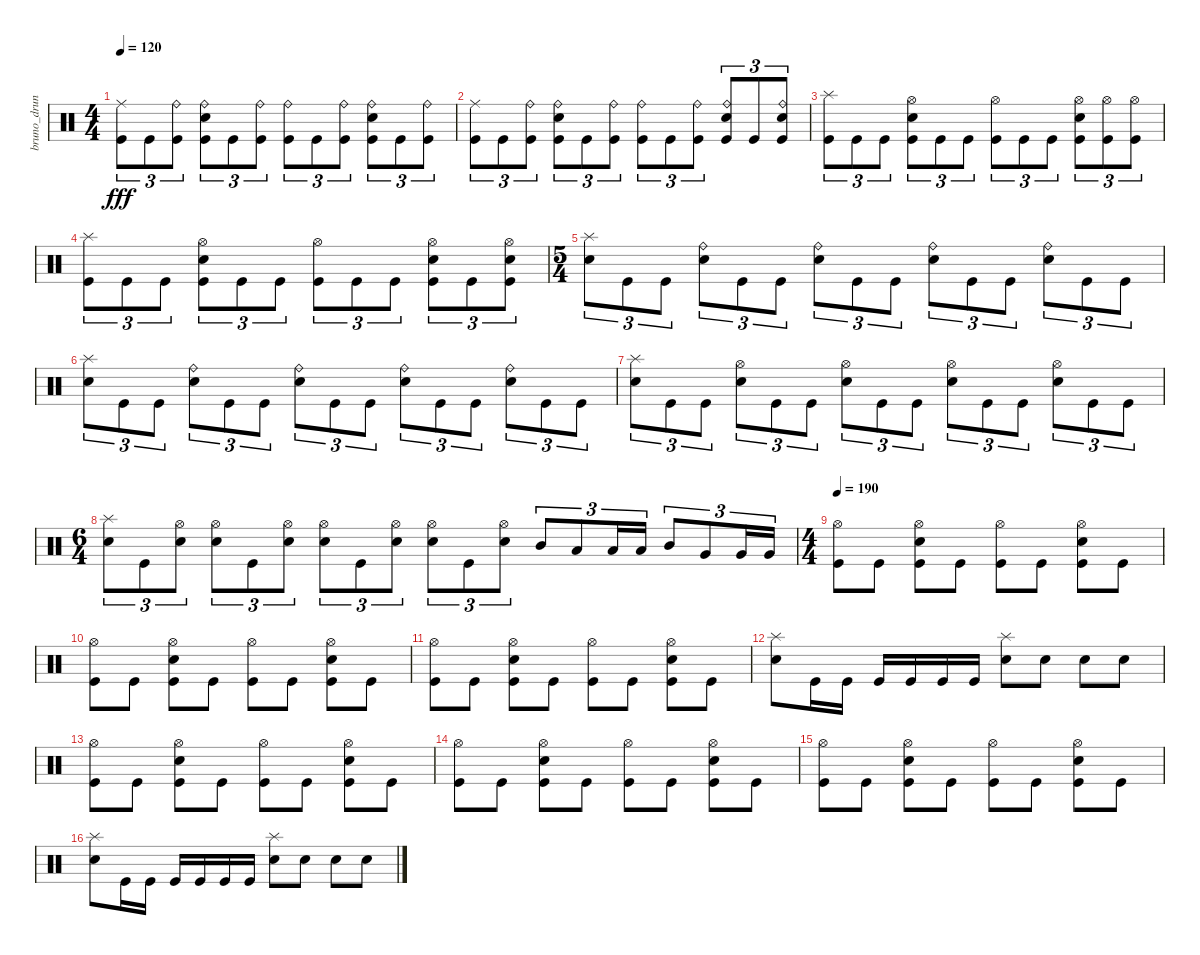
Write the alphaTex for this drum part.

\track ("bruno_druns" "bruno_drun") {instrument percussion}
\staff {score}
\articulation defaults
\ts (4 4)
\tempo 120
\clef neutral
\ks c
("Kick (hit)" "Ride (middle)").8{tu (3 2) dy fff} "Kick (hit)".8{tu (3 2)} ("Kick (hit)" "Ride (bell)").8{tu (3 2)} ("Kick (hit)" "Electric Snare (hit)" "Ride (bell)").8{tu (3 2)} "Kick (hit)".8{tu (3 2)} ("Kick (hit)" "Ride (bell)").8{tu (3 2)} ("Kick (hit)" "Ride (bell)").8{tu (3 2)} "Kick (hit)".8{tu (3 2)} ("Kick (hit)" "Ride (bell)").8{tu (3 2)} ("Kick (hit)" "Electric Snare (hit)" "Ride (bell)").8{tu (3 2)} "Kick (hit)".8{tu (3 2)} ("Kick (hit)" "Ride (bell)").8{tu (3 2)} |
("Kick (hit)" "Ride (middle)").8{tu (3 2)} "Kick (hit)".8{tu (3 2)} ("Kick (hit)" "Ride (bell)").8{tu (3 2)} ("Kick (hit)" "Electric Snare (hit)" "Ride (bell)").8{tu (3 2)} "Kick (hit)".8{tu (3 2)} ("Kick (hit)" "Ride (bell)").8{tu (3 2)} ("Kick (hit)" "Ride (bell)").8{tu (3 2)} "Kick (hit)".8{tu (3 2)} ("Kick (hit)" "Ride (bell)").8{tu (3 2)} ("Kick (hit)" "Electric Snare (hit)" "Ride (bell)").8{tu (3 2)} "Kick (hit)".8{tu (3 2)} ("Kick (hit)" "Electric Snare (hit)" "Ride (bell)").8{tu (3 2)} |
("Kick (hit)" "Splash (hit)").8{tu (3 2)} "Kick (hit)".8{tu (3 2)} "Kick (hit)".8{tu (3 2)} ("Kick (hit)" "Electric Snare (hit)" "Hi-Hat (open)").8{tu (3 2)} "Kick (hit)".8{tu (3 2)} "Kick (hit)".8{tu (3 2)} ("Kick (hit)" "Hi-Hat (open)").8{tu (3 2)} "Kick (hit)".8{tu (3 2)} "Kick (hit)".8{tu (3 2)} ("Kick (hit)" "Electric Snare (hit)" "Hi-Hat (open)").8{tu (3 2)} ("Kick (hit)" "Hi-Hat (open)").8{tu (3 2)} ("Kick (hit)" "Hi-Hat (open)").8{tu (3 2)} |
("Kick (hit)" "Splash (hit)").8{tu (3 2)} "Kick (hit)".8{tu (3 2)} "Kick (hit)".8{tu (3 2)} ("Kick (hit)" "Electric Snare (hit)" "Hi-Hat (open)").8{tu (3 2)} "Kick (hit)".8{tu (3 2)} "Kick (hit)".8{tu (3 2)} ("Kick (hit)" "Hi-Hat (open)").8{tu (3 2)} "Kick (hit)".8{tu (3 2)} "Kick (hit)".8{tu (3 2)} ("Kick (hit)" "Electric Snare (hit)" "Hi-Hat (open)").8{tu (3 2)} "Kick (hit)".8{tu (3 2)} ("Kick (hit)" "Electric Snare (hit)" "Hi-Hat (open)").8{tu (3 2)} |
\ts (5 4)
("Electric Snare (hit)" "Splash (hit)").8{tu (3 2)} "Kick (hit)".8{tu (3 2)} "Kick (hit)".8{tu (3 2)} ("Electric Snare (hit)" "Ride (bell)").8{tu (3 2)} "Kick (hit)".8{tu (3 2)} "Kick (hit)".8{tu (3 2)} ("Electric Snare (hit)" "Ride (bell)").8{tu (3 2)} "Kick (hit)".8{tu (3 2)} "Kick (hit)".8{tu (3 2)} ("Electric Snare (hit)" "Ride (bell)").8{tu (3 2)} "Kick (hit)".8{tu (3 2)} "Kick (hit)".8{tu (3 2)} ("Electric Snare (hit)" "Ride (bell)").8{tu (3 2)} "Kick (hit)".8{tu (3 2)} "Kick (hit)".8{tu (3 2)} |
("Electric Snare (hit)" "Splash (hit)").8{tu (3 2)} "Kick (hit)".8{tu (3 2)} "Kick (hit)".8{tu (3 2)} ("Electric Snare (hit)" "Ride (bell)").8{tu (3 2)} "Kick (hit)".8{tu (3 2)} "Kick (hit)".8{tu (3 2)} ("Electric Snare (hit)" "Ride (bell)").8{tu (3 2)} "Kick (hit)".8{tu (3 2)} "Kick (hit)".8{tu (3 2)} ("Electric Snare (hit)" "Ride (bell)").8{tu (3 2)} "Kick (hit)".8{tu (3 2)} "Kick (hit)".8{tu (3 2)} ("Electric Snare (hit)" "Ride (bell)").8{tu (3 2)} "Kick (hit)".8{tu (3 2)} "Kick (hit)".8{tu (3 2)} |
("Electric Snare (hit)" "Splash (hit)").8{tu (3 2)} "Kick (hit)".8{tu (3 2)} "Kick (hit)".8{tu (3 2)} ("Electric Snare (hit)" "Hi-Hat (open)").8{tu (3 2)} "Kick (hit)".8{tu (3 2)} "Kick (hit)".8{tu (3 2)} ("Electric Snare (hit)" "Hi-Hat (open)").8{tu (3 2)} "Kick (hit)".8{tu (3 2)} "Kick (hit)".8{tu (3 2)} ("Electric Snare (hit)" "Hi-Hat (open)").8{tu (3 2)} "Kick (hit)".8{tu (3 2)} "Kick (hit)".8{tu (3 2)} ("Electric Snare (hit)" "Hi-Hat (open)").8{tu (3 2)} "Kick (hit)".8{tu (3 2)} "Kick (hit)".8{tu (3 2)} |
\ts (6 4)
("Electric Snare (hit)" "Splash (hit)").8{tu (3 2)} "Kick (hit)".8{tu (3 2)} ("Electric Snare (hit)" "Hi-Hat (open)").8{tu (3 2)} ("Electric Snare (hit)" "Hi-Hat (open)").8{tu (3 2)} "Kick (hit)".8{tu (3 2)} ("Electric Snare (hit)" "Hi-Hat (open)").8{tu (3 2)} ("Electric Snare (hit)" "Hi-Hat (open)").8{tu (3 2)} "Kick (hit)".8{tu (3 2)} ("Electric Snare (hit)" "Hi-Hat (open)").8{tu (3 2)} ("Electric Snare (hit)" "Hi-Hat (open)").8{tu (3 2)} "Kick (hit)".8{tu (3 2)} ("Electric Snare (hit)" "Hi-Hat (open)").8{tu (3 2)} "Mid Tom (hit)".8{tu (3 2)} "Low Tom (hit)".8{tu (3 2)} "Low Tom (hit)".16{tu (3 2)} "Low Tom (hit)".16{tu (3 2)} "Mid Tom (hit)".8{tu (3 2)} "Very Low Tom (hit)".8{tu (3 2)} "Very Low Tom (hit)".16{tu (3 2)} "Very Low Tom (hit)".16{tu (3 2)} |
\ts (4 4)
\tempo 190
("Kick (hit)" "Hi-Hat (open)").8 "Kick (hit)".8 ("Kick (hit)" "Electric Snare (hit)" "Hi-Hat (open)").8 "Kick (hit)".8 ("Kick (hit)" "Hi-Hat (open)").8 "Kick (hit)".8 ("Kick (hit)" "Electric Snare (hit)" "Hi-Hat (open)").8 "Kick (hit)".8 |
("Kick (hit)" "Hi-Hat (open)").8 "Kick (hit)".8 ("Kick (hit)" "Electric Snare (hit)" "Hi-Hat (open)").8 "Kick (hit)".8 ("Kick (hit)" "Hi-Hat (open)").8 "Kick (hit)".8 ("Kick (hit)" "Electric Snare (hit)" "Hi-Hat (open)").8 "Kick (hit)".8 |
("Kick (hit)" "Hi-Hat (open)").8 "Kick (hit)".8 ("Kick (hit)" "Electric Snare (hit)" "Hi-Hat (open)").8 "Kick (hit)".8 ("Kick (hit)" "Hi-Hat (open)").8 "Kick (hit)".8 ("Kick (hit)" "Electric Snare (hit)" "Hi-Hat (open)").8 "Kick (hit)".8 |
("Electric Snare (hit)" "Splash (hit)").8 "Kick (hit)".16 "Kick (hit)".16 "Kick (hit)".16 "Kick (hit)".16 "Kick (hit)".16 "Kick (hit)".16 ("Electric Snare (hit)" "Splash (hit)").8 "Electric Snare (hit)".8 "Electric Snare (hit)".8 "Electric Snare (hit)".8 |
("Kick (hit)" "Hi-Hat (open)").8 "Kick (hit)".8 ("Kick (hit)" "Electric Snare (hit)" "Hi-Hat (open)").8 "Kick (hit)".8 ("Kick (hit)" "Hi-Hat (open)").8 "Kick (hit)".8 ("Kick (hit)" "Electric Snare (hit)" "Hi-Hat (open)").8 "Kick (hit)".8 |
("Kick (hit)" "Hi-Hat (open)").8 "Kick (hit)".8 ("Kick (hit)" "Electric Snare (hit)" "Hi-Hat (open)").8 "Kick (hit)".8 ("Kick (hit)" "Hi-Hat (open)").8 "Kick (hit)".8 ("Kick (hit)" "Electric Snare (hit)" "Hi-Hat (open)").8 "Kick (hit)".8 |
("Kick (hit)" "Hi-Hat (open)").8 "Kick (hit)".8 ("Kick (hit)" "Electric Snare (hit)" "Hi-Hat (open)").8 "Kick (hit)".8 ("Kick (hit)" "Hi-Hat (open)").8 "Kick (hit)".8 ("Kick (hit)" "Electric Snare (hit)" "Hi-Hat (open)").8 "Kick (hit)".8 |
("Electric Snare (hit)" "Splash (hit)").8 "Kick (hit)".16 "Kick (hit)".16 "Kick (hit)".16 "Kick (hit)".16 "Kick (hit)".16 "Kick (hit)".16 ("Electric Snare (hit)" "Splash (hit)").8 "Electric Snare (hit)".8 "Electric Snare (hit)".8 "Electric Snare (hit)".8
